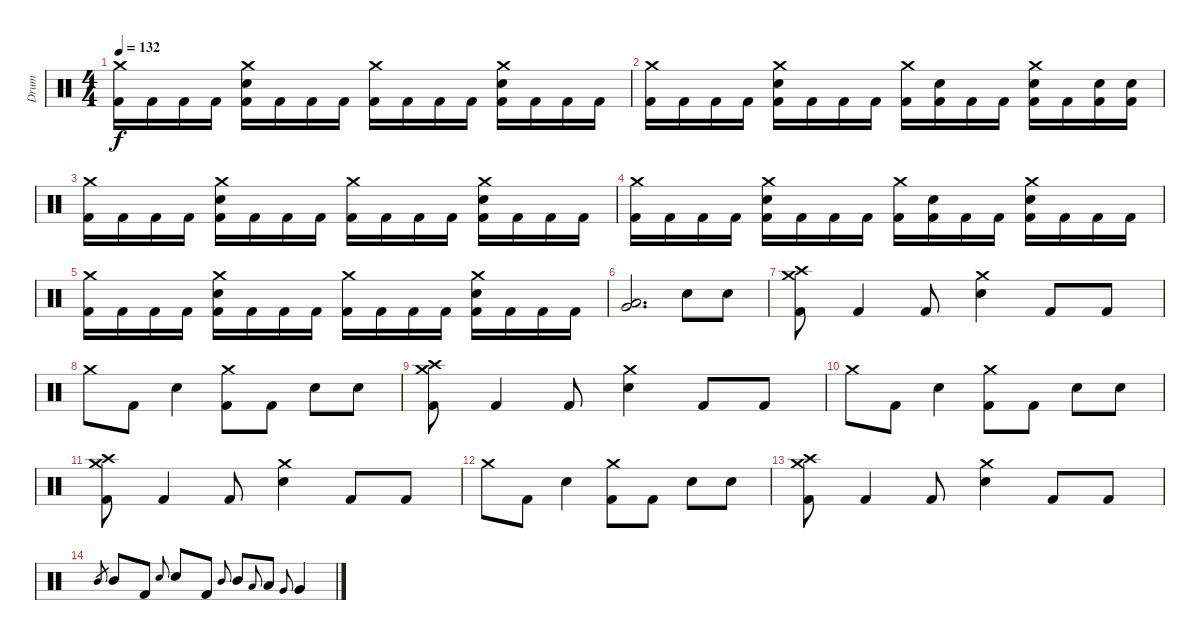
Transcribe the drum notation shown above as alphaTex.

\track ("Drum" "Drum") {instrument percussion}
\staff {score}
\articulation defaults
\ts (4 4)
\tempo 132
\clef neutral
\ks c
("Crash medium (hit)" "Kick (hit) 2").16{dy f} "Kick (hit) 2".16 "Kick (hit) 2".16 "Kick (hit) 2".16 ("Crash medium (hit)" "Snare (hit) 2" "Kick (hit) 2").16 "Kick (hit) 2".16 "Kick (hit) 2".16 "Kick (hit) 2".16 ("Crash medium (hit)" "Kick (hit) 2").16 "Kick (hit) 2".16 "Kick (hit) 2".16 "Kick (hit) 2".16 ("Crash medium (hit)" "Snare (hit) 2" "Kick (hit) 2").16 "Kick (hit) 2".16 "Kick (hit) 2".16 "Kick (hit) 2".16 |
("Crash medium (hit)" "Kick (hit) 2").16 "Kick (hit) 2".16 "Kick (hit) 2".16 "Kick (hit) 2".16 ("Crash medium (hit)" "Snare (hit) 2" "Kick (hit) 2").16 "Kick (hit) 2".16 "Kick (hit) 2".16 "Kick (hit) 2".16 ("Crash medium (hit)" "Kick (hit) 2").16 ("Snare (hit) 2" "Kick (hit) 2").16 "Kick (hit) 2".16 "Kick (hit) 2".16 ("Crash medium (hit)" "Snare (hit) 2" "Kick (hit) 2").16 "Kick (hit) 2".16 ("Snare (hit) 2" "Kick (hit) 2").16 ("Snare (hit) 2" "Kick (hit) 2").16 |
("Crash medium (hit)" "Kick (hit) 2").16 "Kick (hit) 2".16 "Kick (hit) 2".16 "Kick (hit) 2".16 ("Crash medium (hit)" "Snare (hit) 2" "Kick (hit) 2").16 "Kick (hit) 2".16 "Kick (hit) 2".16 "Kick (hit) 2".16 ("Crash medium (hit)" "Kick (hit) 2").16 "Kick (hit) 2".16 "Kick (hit) 2".16 "Kick (hit) 2".16 ("Crash medium (hit)" "Snare (hit) 2" "Kick (hit) 2").16 "Kick (hit) 2".16 "Kick (hit) 2".16 "Kick (hit) 2".16 |
("Crash medium (hit)" "Kick (hit) 2").16 "Kick (hit) 2".16 "Kick (hit) 2".16 "Kick (hit) 2".16 ("Crash medium (hit)" "Snare (hit) 2" "Kick (hit) 2").16 "Kick (hit) 2".16 "Kick (hit) 2".16 "Kick (hit) 2".16 ("Crash medium (hit)" "Kick (hit) 2").16 ("Snare (hit) 2" "Kick (hit) 2").16 "Kick (hit) 2".16 "Kick (hit) 2".16 ("Crash medium (hit)" "Snare (hit) 2" "Kick (hit) 2").16 "Kick (hit) 2".16 "Kick (hit) 2".16 "Kick (hit) 2".16 |
("Crash medium (hit)" "Kick (hit) 2").16 "Kick (hit) 2".16 "Kick (hit) 2".16 "Kick (hit) 2".16 ("Crash medium (hit)" "Snare (hit) 2" "Kick (hit) 2").16 "Kick (hit) 2".16 "Kick (hit) 2".16 "Kick (hit) 2".16 ("Crash medium (hit)" "Kick (hit) 2").16 "Kick (hit) 2".16 "Kick (hit) 2".16 "Kick (hit) 2".16 ("Crash medium (hit)" "Snare (hit) 2" "Kick (hit) 2").16 "Kick (hit) 2".16 "Kick (hit) 2".16 "Kick (hit) 2".16 |
("Low Tom (hit)" "Very Low Tom (hit)").2{d} "Snare (hit) 2".8 "Snare (hit) 2".8 |
("Crash medium (hit)" "Crash high (hit)" "Kick (hit) 2").8 "Kick (hit) 2".4 "Kick (hit) 2".8 ("Crash medium (hit)" "Snare (hit) 2").4 "Kick (hit) 2".8 "Kick (hit) 2".8 |
"Crash medium (hit)".8 "Kick (hit) 2".8 "Snare (hit) 2".4 ("Crash medium (hit)" "Kick (hit) 2").8 "Kick (hit) 2".8 "Snare (hit) 2".8 "Snare (hit) 2".8 |
("Crash medium (hit)" "Crash high (hit)" "Kick (hit) 2").8 "Kick (hit) 2".4 "Kick (hit) 2".8 ("Crash medium (hit)" "Snare (hit) 2").4 "Kick (hit) 2".8 "Kick (hit) 2".8 |
"Crash medium (hit)".8 "Kick (hit) 2".8 "Snare (hit) 2".4 ("Crash medium (hit)" "Kick (hit) 2").8 "Kick (hit) 2".8 "Snare (hit) 2".8 "Snare (hit) 2".8 |
("Crash medium (hit)" "Crash high (hit)" "Kick (hit) 2").8 "Kick (hit) 2".4 "Kick (hit) 2".8 ("Crash medium (hit)" "Snare (hit) 2").4 "Kick (hit) 2".8 "Kick (hit) 2".8 |
"Crash medium (hit)".8 "Kick (hit) 2".8 "Snare (hit) 2".4 ("Crash medium (hit)" "Kick (hit) 2").8 "Kick (hit) 2".8 "Snare (hit) 2".8 "Snare (hit) 2".8 |
("Crash medium (hit)" "Crash high (hit)" "Kick (hit) 2").8 "Kick (hit) 2".4 "Kick (hit) 2".8 ("Crash medium (hit)" "Snare (hit) 2").4 "Kick (hit) 2".8 "Kick (hit) 2".8 |
"Mid Tom (hit)".8{gr} "Mid Tom (hit)".8 "Kick (hit) 2".8 "Snare (hit) 2".8{gr onbeat} "Snare (hit) 2".8 "Kick (hit) 2".8 "Mid Tom (hit)".8{gr onbeat} "Mid Tom (hit)".8 "Low Tom (hit)".8{gr onbeat} "Low Tom (hit)".8 "Very Low Tom (hit)".8{gr onbeat} "Very Low Tom (hit)".4
